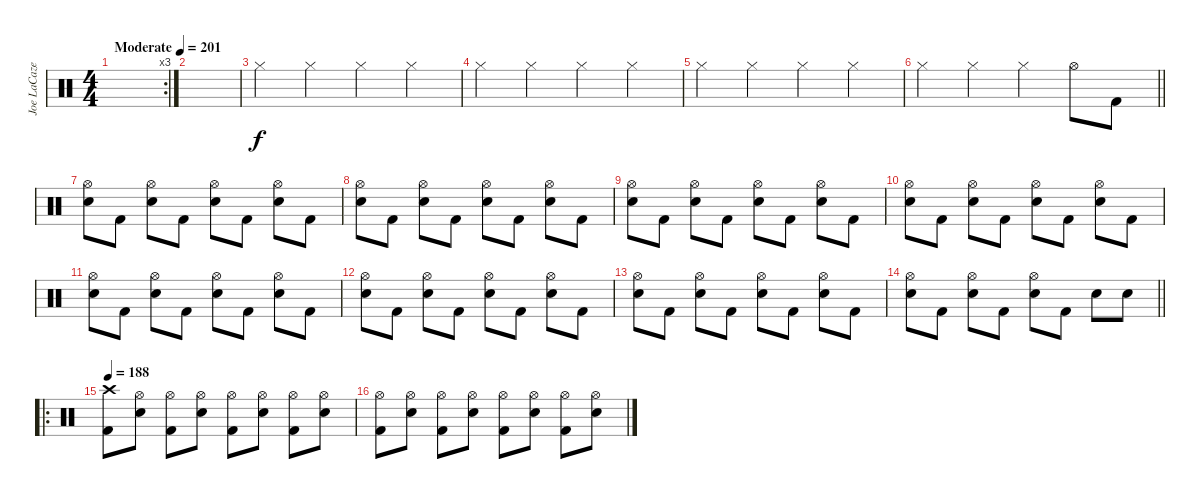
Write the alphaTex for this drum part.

\track ("Joe LaCaze" "Joe LaCaze") {instrument percussion}
\staff {score}
\articulation defaults
\rc 3
\ts (4 4)
\tempo (201 "Moderate")
\clef neutral
\ks c
|
|
"Hi-Hat (closed)".4 "Hi-Hat (closed)".4 "Hi-Hat (closed)".4 "Hi-Hat (closed)".4 |
"Hi-Hat (closed)".4 "Hi-Hat (closed)".4 "Hi-Hat (closed)".4 "Hi-Hat (closed)".4 |
"Hi-Hat (closed)".4 "Hi-Hat (closed)".4 "Hi-Hat (closed)".4 "Hi-Hat (closed)".4 |
\barLineRight lightlight "Hi-Hat (closed)".4 "Hi-Hat (closed)".4 "Hi-Hat (closed)".4 "Hi-Hat (open)".8 "Kick (hit) 2".8
|
\section ("" "")
("Hi-Hat (open)" "Electric Snare (hit)").8 "Kick (hit) 2".8 ("Hi-Hat (open)" "Electric Snare (hit)").8 "Kick (hit) 2".8 ("Hi-Hat (open)" "Electric Snare (hit)").8 "Kick (hit) 2".8 ("Hi-Hat (open)" "Electric Snare (hit)").8 "Kick (hit) 2".8 |
("Hi-Hat (open)" "Electric Snare (hit)").8 "Kick (hit) 2".8 ("Hi-Hat (open)" "Electric Snare (hit)").8 "Kick (hit) 2".8 ("Hi-Hat (open)" "Electric Snare (hit)").8 "Kick (hit) 2".8 ("Hi-Hat (open)" "Electric Snare (hit)").8 "Kick (hit) 2".8 |
("Hi-Hat (open)" "Electric Snare (hit)").8 "Kick (hit) 2".8 ("Hi-Hat (open)" "Electric Snare (hit)").8 "Kick (hit) 2".8 ("Hi-Hat (open)" "Electric Snare (hit)").8 "Kick (hit) 2".8 ("Hi-Hat (open)" "Electric Snare (hit)").8 "Kick (hit) 2".8 |
("Hi-Hat (open)" "Electric Snare (hit)").8 "Kick (hit) 2".8 ("Hi-Hat (open)" "Electric Snare (hit)").8 "Kick (hit) 2".8 ("Hi-Hat (open)" "Electric Snare (hit)").8 "Kick (hit) 2".8 ("Hi-Hat (open)" "Electric Snare (hit)").8 "Kick (hit) 2".8 |
("Hi-Hat (open)" "Electric Snare (hit)").8 "Kick (hit) 2".8 ("Hi-Hat (open)" "Electric Snare (hit)").8 "Kick (hit) 2".8 ("Hi-Hat (open)" "Electric Snare (hit)").8 "Kick (hit) 2".8 ("Hi-Hat (open)" "Electric Snare (hit)").8 "Kick (hit) 2".8 |
("Hi-Hat (open)" "Electric Snare (hit)").8 "Kick (hit) 2".8 ("Hi-Hat (open)" "Electric Snare (hit)").8 "Kick (hit) 2".8 ("Hi-Hat (open)" "Electric Snare (hit)").8 "Kick (hit) 2".8 ("Hi-Hat (open)" "Electric Snare (hit)").8 "Kick (hit) 2".8 |
("Hi-Hat (open)" "Electric Snare (hit)").8 "Kick (hit) 2".8 ("Hi-Hat (open)" "Electric Snare (hit)").8 "Kick (hit) 2".8 ("Hi-Hat (open)" "Electric Snare (hit)").8 "Kick (hit) 2".8 ("Hi-Hat (open)" "Electric Snare (hit)").8 "Kick (hit) 2".8 |
\barLineRight lightlight
("Hi-Hat (open)" "Electric Snare (hit)").8 "Kick (hit) 2".8 ("Hi-Hat (open)" "Electric Snare (hit)").8 "Kick (hit) 2".8 ("Hi-Hat (open)" "Electric Snare (hit)").8 "Kick (hit) 2".8 "Electric Snare (hit)".8 "Electric Snare (hit)".8 |
\ro
\section ("" "")
\tempo 188
("Crash high (hit)" "Kick (hit) 2").8 ("Hi-Hat (open)" "Electric Snare (hit)").8 ("Hi-Hat (open)" "Kick (hit) 2").8 ("Hi-Hat (open)" "Electric Snare (hit)").8 ("Hi-Hat (open)" "Kick (hit) 2").8 ("Hi-Hat (open)" "Electric Snare (hit)").8 ("Hi-Hat (open)" "Kick (hit) 2").8 ("Hi-Hat (open)" "Electric Snare (hit)").8 |
("Hi-Hat (open)" "Kick (hit) 2").8 ("Hi-Hat (open)" "Electric Snare (hit)").8 ("Hi-Hat (open)" "Kick (hit) 2").8 ("Hi-Hat (open)" "Electric Snare (hit)").8 ("Hi-Hat (open)" "Kick (hit) 2").8 ("Hi-Hat (open)" "Electric Snare (hit)").8 ("Hi-Hat (open)" "Kick (hit) 2").8 ("Hi-Hat (open)" "Electric Snare (hit)").8
